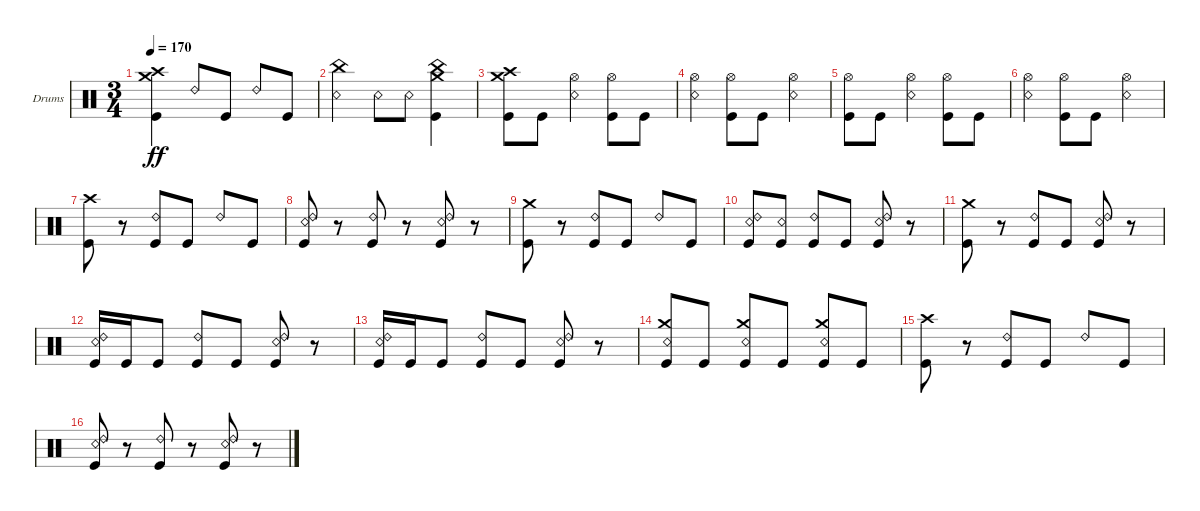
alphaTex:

\bracketExtendMode groupsimilarinstruments
\firstSystemTrackNameOrientation horizontal
\otherSystemsTrackNameOrientation horizontal
\track ("Kaleb - Drums" "Drums") {instrument percussion}
\staff {score}
\articulation defaults
\ts (3 4)
\tempo 170
\clef neutral
\ks c
("Kick (hit)" "Crash medium (hit)" "Crash high (hit)").4{dy ff} "Ride (bell) 2".8 "Kick (hit)".8 "Ride (bell) 2".8 "Kick (hit)".8 |
("Snare (rim shot)" "China (hit)").4 "Snare (rim shot)".8 "Snare (rim shot)".8 ("Kick (hit)" "Crash medium (hit)" "China (hit)").4 |
("Kick (hit)" "Crash medium (hit)" "Crash high (hit)").8 "Kick (hit)".8 ("Hi-Hat (open)" "Snare (rim shot)").4 ("Kick (hit)" "Hi-Hat (open)").8 "Kick (hit)".8 |
("Hi-Hat (open)" "Snare (rim shot)").4 ("Kick (hit)" "Hi-Hat (open)").8 "Kick (hit)".8 ("Hi-Hat (open)" "Snare (rim shot)").4 |
("Kick (hit)" "Hi-Hat (open)").8 "Kick (hit)".8 ("Hi-Hat (open)" "Snare (rim shot)").4 ("Kick (hit)" "Hi-Hat (open)").8 "Kick (hit)".8 |
("Hi-Hat (open)" "Snare (rim shot)").4 ("Kick (hit)" "Hi-Hat (open)").8 "Kick (hit)".8 ("Hi-Hat (open)" "Snare (rim shot)").4 |
("Kick (hit)" "Crash high (hit)").8 r.8 ("Kick (hit)" "Ride (bell) 2").8 "Kick (hit)".8 "Ride (bell) 2".8 "Kick (hit)".8 |
("Kick (hit)" "Ride (bell) 2" "Snare (rim shot)").8 r.8 ("Kick (hit)" "Ride (bell) 2").8 r.8 ("Kick (hit)" "Ride (bell) 2" "Snare (rim shot)").8 r.8 |
("Kick (hit)" "Crash medium (hit)").8 r.8 ("Kick (hit)" "Ride (bell) 2").8 "Kick (hit)".8 "Ride (bell) 2".8 "Kick (hit)".8 |
("Kick (hit)" "Ride (bell) 2" "Snare (rim shot)").8 ("Kick (hit)" "Snare (rim shot)").8 ("Kick (hit)" "Ride (bell) 2").8 "Kick (hit)".8 ("Kick (hit)" "Ride (bell) 2" "Snare (rim shot)").8 r.8 |
("Kick (hit)" "Crash medium (hit)").8 r.8 ("Kick (hit)" "Ride (bell) 2").8 "Kick (hit)".8 ("Kick (hit)" "Snare (rim shot)" "Ride (bell) 2").8 r.8 |
("Kick (hit)" "Snare (rim shot)" "Ride (bell) 2").16 "Kick (hit)".16 "Kick (hit)".8 ("Kick (hit)" "Ride (bell) 2").8 "Kick (hit)".8 ("Kick (hit)" "Snare (rim shot)" "Ride (bell) 2").8 r.8 |
("Kick (hit)" "Snare (rim shot)" "Ride (bell) 2").16 "Kick (hit)".16 "Kick (hit)".8 ("Kick (hit)" "Ride (bell) 2").8 "Kick (hit)".8 ("Kick (hit)" "Snare (rim shot)" "Ride (bell) 2").8 r.8 |
("Kick (hit)" "Crash medium (hit)" "Snare (rim shot)").8 "Kick (hit)".8 ("Kick (hit)" "Crash medium (hit)" "Snare (rim shot)").8 "Kick (hit)".8 ("Kick (hit)" "Crash medium (hit)" "Snare (rim shot)").8 "Kick (hit)".8 |
("Kick (hit)" "Crash high (hit)").8 r.8 ("Kick (hit)" "Ride (bell) 2").8 "Kick (hit)".8 "Ride (bell) 2".8 "Kick (hit)".8 |
("Kick (hit)" "Ride (bell) 2" "Snare (rim shot)").8 r.8 ("Kick (hit)" "Ride (bell) 2").8 r.8 ("Kick (hit)" "Ride (bell) 2" "Snare (rim shot)").8 r.8
